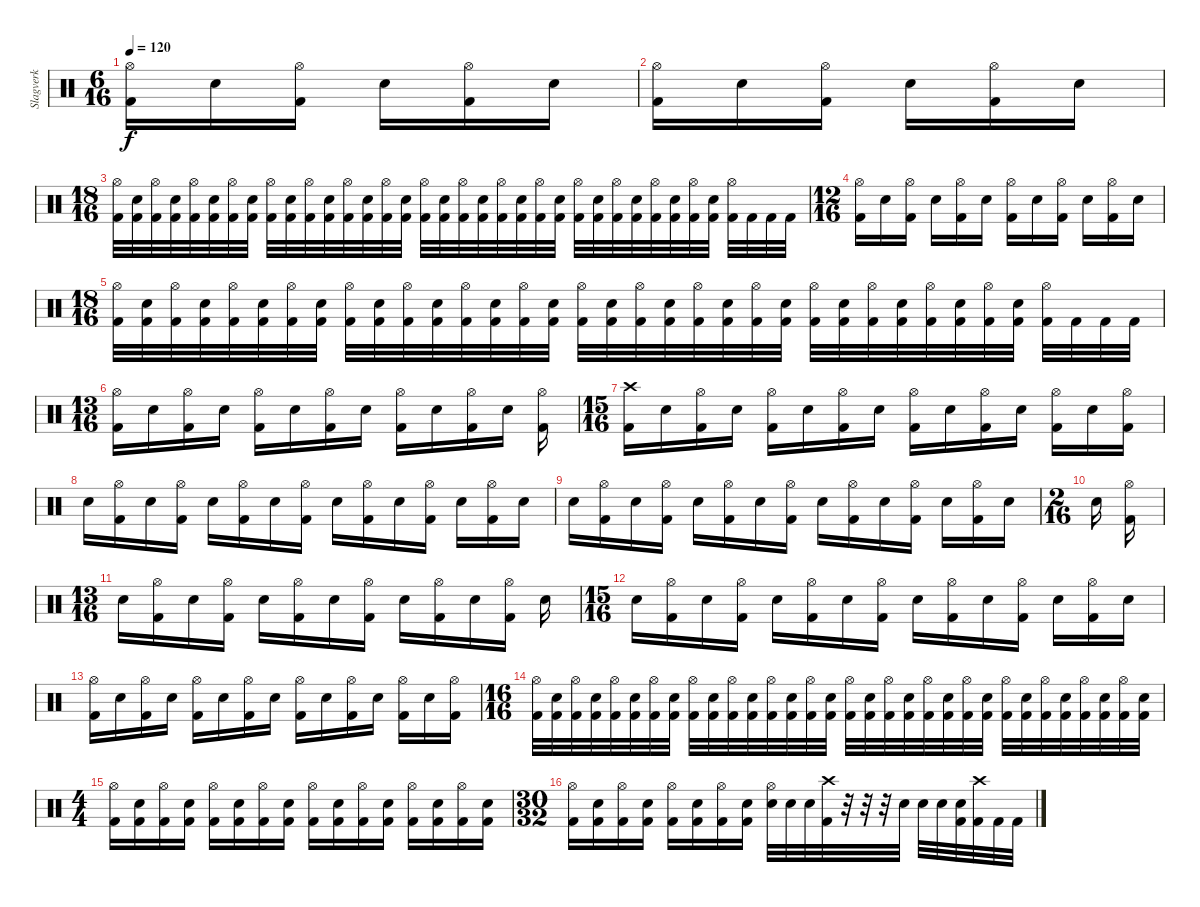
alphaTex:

\track ("Slagverk" "Slagverk") {instrument percussion}
\staff {score}
\articulation defaults
\ts (6 16)
\tempo 120
\clef neutral
\ks c
("Hi-Hat (open)" "Kick (hit) 2").16{dy f} "Electric Snare (hit)".16 ("Hi-Hat (open)" "Kick (hit) 2").16 "Electric Snare (hit)".16 ("Hi-Hat (open)" "Kick (hit) 2").16 "Electric Snare (hit)".16 |
("Hi-Hat (open)" "Kick (hit) 2").16 "Electric Snare (hit)".16 ("Hi-Hat (open)" "Kick (hit) 2").16 "Electric Snare (hit)".16 ("Hi-Hat (open)" "Kick (hit) 2").16 "Electric Snare (hit)".16 |
\ts (18 16)
("Hi-Hat (open)" "Kick (hit) 2").32 ("Electric Snare (hit)" "Kick (hit) 2").32 ("Hi-Hat (open)" "Kick (hit) 2").32 ("Electric Snare (hit)" "Kick (hit) 2").32 ("Hi-Hat (open)" "Kick (hit) 2").32 ("Electric Snare (hit)" "Kick (hit) 2").32 ("Hi-Hat (open)" "Kick (hit) 2").32 ("Electric Snare (hit)" "Kick (hit) 2").32 ("Hi-Hat (open)" "Kick (hit) 2").32 ("Electric Snare (hit)" "Kick (hit) 2").32 ("Hi-Hat (open)" "Kick (hit) 2").32 ("Electric Snare (hit)" "Kick (hit) 2").32 ("Hi-Hat (open)" "Kick (hit) 2").32 ("Electric Snare (hit)" "Kick (hit) 2").32 ("Hi-Hat (open)" "Kick (hit) 2").32 ("Electric Snare (hit)" "Kick (hit) 2").32 ("Hi-Hat (open)" "Kick (hit) 2").32 ("Electric Snare (hit)" "Kick (hit) 2").32 ("Hi-Hat (open)" "Kick (hit) 2").32 ("Electric Snare (hit)" "Kick (hit) 2").32 ("Hi-Hat (open)" "Kick (hit) 2").32 ("Electric Snare (hit)" "Kick (hit) 2").32 ("Hi-Hat (open)" "Kick (hit) 2").32 ("Electric Snare (hit)" "Kick (hit) 2").32 ("Hi-Hat (open)" "Kick (hit) 2").32 ("Electric Snare (hit)" "Kick (hit) 2").32 ("Hi-Hat (open)" "Kick (hit) 2").32 ("Electric Snare (hit)" "Kick (hit) 2").32 ("Hi-Hat (open)" "Kick (hit) 2").32 ("Electric Snare (hit)" "Kick (hit) 2").32 ("Hi-Hat (open)" "Kick (hit) 2").32 ("Electric Snare (hit)" "Kick (hit) 2").32 ("Hi-Hat (open)" "Kick (hit) 2").32 "Kick (hit) 2".32 "Kick (hit) 2".32 "Kick (hit) 2".32 |
\ts (12 16)
("Hi-Hat (open)" "Kick (hit) 2").16 "Electric Snare (hit)".16 ("Hi-Hat (open)" "Kick (hit) 2").16 "Electric Snare (hit)".16 ("Hi-Hat (open)" "Kick (hit) 2").16 "Electric Snare (hit)".16 ("Hi-Hat (open)" "Kick (hit) 2").16 "Electric Snare (hit)".16 ("Hi-Hat (open)" "Kick (hit) 2").16 "Electric Snare (hit)".16 ("Hi-Hat (open)" "Kick (hit) 2").16 "Electric Snare (hit)".16 |
\ts (18 16)
("Hi-Hat (open)" "Kick (hit) 2").32 ("Electric Snare (hit)" "Kick (hit) 2").32 ("Hi-Hat (open)" "Kick (hit) 2").32 ("Electric Snare (hit)" "Kick (hit) 2").32 ("Hi-Hat (open)" "Kick (hit) 2").32 ("Electric Snare (hit)" "Kick (hit) 2").32 ("Hi-Hat (open)" "Kick (hit) 2").32 ("Electric Snare (hit)" "Kick (hit) 2").32 ("Hi-Hat (open)" "Kick (hit) 2").32 ("Electric Snare (hit)" "Kick (hit) 2").32 ("Hi-Hat (open)" "Kick (hit) 2").32 ("Electric Snare (hit)" "Kick (hit) 2").32 ("Hi-Hat (open)" "Kick (hit) 2").32 ("Electric Snare (hit)" "Kick (hit) 2").32 ("Hi-Hat (open)" "Kick (hit) 2").32 ("Electric Snare (hit)" "Kick (hit) 2").32 ("Hi-Hat (open)" "Kick (hit) 2").32 ("Electric Snare (hit)" "Kick (hit) 2").32 ("Hi-Hat (open)" "Kick (hit) 2").32 ("Electric Snare (hit)" "Kick (hit) 2").32 ("Hi-Hat (open)" "Kick (hit) 2").32 ("Electric Snare (hit)" "Kick (hit) 2").32 ("Hi-Hat (open)" "Kick (hit) 2").32 ("Electric Snare (hit)" "Kick (hit) 2").32 ("Hi-Hat (open)" "Kick (hit) 2").32 ("Electric Snare (hit)" "Kick (hit) 2").32 ("Hi-Hat (open)" "Kick (hit) 2").32 ("Electric Snare (hit)" "Kick (hit) 2").32 ("Hi-Hat (open)" "Kick (hit) 2").32 ("Electric Snare (hit)" "Kick (hit) 2").32 ("Hi-Hat (open)" "Kick (hit) 2").32 ("Electric Snare (hit)" "Kick (hit) 2").32 ("Hi-Hat (open)" "Kick (hit) 2").32 "Kick (hit) 2".32 "Kick (hit) 2".32 "Kick (hit) 2".32 |
\ts (13 16)
("Hi-Hat (open)" "Kick (hit) 2").16 "Electric Snare (hit)".16 ("Hi-Hat (open)" "Kick (hit) 2").16 "Electric Snare (hit)".16 ("Hi-Hat (open)" "Kick (hit) 2").16 "Electric Snare (hit)".16 ("Hi-Hat (open)" "Kick (hit) 2").16 "Electric Snare (hit)".16 ("Hi-Hat (open)" "Kick (hit) 2").16 "Electric Snare (hit)".16 ("Hi-Hat (open)" "Kick (hit) 2").16 "Electric Snare (hit)".16 ("Hi-Hat (open)" "Kick (hit) 2").16 |
\ts (15 16)
("Crash high (hit)" "Kick (hit) 2").16 "Electric Snare (hit)".16 ("Hi-Hat (open)" "Kick (hit) 2").16 "Electric Snare (hit)".16 ("Hi-Hat (open)" "Kick (hit) 2").16 "Electric Snare (hit)".16 ("Hi-Hat (open)" "Kick (hit) 2").16 "Electric Snare (hit)".16 ("Hi-Hat (open)" "Kick (hit) 2").16 "Electric Snare (hit)".16 ("Hi-Hat (open)" "Kick (hit) 2").16 "Electric Snare (hit)".16 ("Hi-Hat (open)" "Kick (hit) 2").16 "Electric Snare (hit)".16 ("Hi-Hat (open)" "Kick (hit) 2").16 |
"Electric Snare (hit)".16 ("Hi-Hat (open)" "Kick (hit) 2").16 "Electric Snare (hit)".16 ("Hi-Hat (open)" "Kick (hit) 2").16 "Electric Snare (hit)".16 ("Hi-Hat (open)" "Kick (hit) 2").16 "Electric Snare (hit)".16 ("Hi-Hat (open)" "Kick (hit) 2").16 "Electric Snare (hit)".16 ("Hi-Hat (open)" "Kick (hit) 2").16 "Electric Snare (hit)".16 ("Hi-Hat (open)" "Kick (hit) 2").16 "Electric Snare (hit)".16 ("Hi-Hat (open)" "Kick (hit) 2").16 "Electric Snare (hit)".16 |
"Electric Snare (hit)".16 ("Hi-Hat (open)" "Kick (hit) 2").16 "Electric Snare (hit)".16 ("Hi-Hat (open)" "Kick (hit) 2").16 "Electric Snare (hit)".16 ("Hi-Hat (open)" "Kick (hit) 2").16 "Electric Snare (hit)".16 ("Hi-Hat (open)" "Kick (hit) 2").16 "Electric Snare (hit)".16 ("Hi-Hat (open)" "Kick (hit) 2").16 "Electric Snare (hit)".16 ("Hi-Hat (open)" "Kick (hit) 2").16 "Electric Snare (hit)".16 ("Hi-Hat (open)" "Kick (hit) 2").16 "Electric Snare (hit)".16 |
\ts (2 16)
"Electric Snare (hit)".16 ("Hi-Hat (open)" "Kick (hit) 2").16 |
\ts (13 16)
"Electric Snare (hit)".16 ("Hi-Hat (open)" "Kick (hit) 2").16 "Electric Snare (hit)".16 ("Hi-Hat (open)" "Kick (hit) 2").16 "Electric Snare (hit)".16 ("Hi-Hat (open)" "Kick (hit) 2").16 "Electric Snare (hit)".16 ("Hi-Hat (open)" "Kick (hit) 2").16 "Electric Snare (hit)".16 ("Hi-Hat (open)" "Kick (hit) 2").16 "Electric Snare (hit)".16 ("Hi-Hat (open)" "Kick (hit) 2").16 "Electric Snare (hit)".16 |
\ts (15 16)
"Electric Snare (hit)".16 ("Hi-Hat (open)" "Kick (hit) 2").16 "Electric Snare (hit)".16 ("Hi-Hat (open)" "Kick (hit) 2").16 "Electric Snare (hit)".16 ("Hi-Hat (open)" "Kick (hit) 2").16 "Electric Snare (hit)".16 ("Hi-Hat (open)" "Kick (hit) 2").16 "Electric Snare (hit)".16 ("Hi-Hat (open)" "Kick (hit) 2").16 "Electric Snare (hit)".16 ("Hi-Hat (open)" "Kick (hit) 2").16 "Electric Snare (hit)".16 ("Hi-Hat (open)" "Kick (hit) 2").16 "Electric Snare (hit)".16 |
("Hi-Hat (open)" "Kick (hit) 2").16 "Electric Snare (hit)".16 ("Hi-Hat (open)" "Kick (hit) 2").16 "Electric Snare (hit)".16 ("Hi-Hat (open)" "Kick (hit) 2").16 "Electric Snare (hit)".16 ("Hi-Hat (open)" "Kick (hit) 2").16 "Electric Snare (hit)".16 ("Hi-Hat (open)" "Kick (hit) 2").16 "Electric Snare (hit)".16 ("Hi-Hat (open)" "Kick (hit) 2").16 "Electric Snare (hit)".16 ("Hi-Hat (open)" "Kick (hit) 2").16 "Electric Snare (hit)".16 ("Hi-Hat (open)" "Kick (hit) 2").16 |
\ts (16 16)
("Hi-Hat (open)" "Kick (hit) 2").32 ("Electric Snare (hit)" "Kick (hit) 2").32 ("Hi-Hat (open)" "Kick (hit) 2").32 ("Electric Snare (hit)" "Kick (hit) 2").32 ("Hi-Hat (open)" "Kick (hit) 2").32 ("Electric Snare (hit)" "Kick (hit) 2").32 ("Hi-Hat (open)" "Kick (hit) 2").32 ("Electric Snare (hit)" "Kick (hit) 2").32 ("Hi-Hat (open)" "Kick (hit) 2").32 ("Electric Snare (hit)" "Kick (hit) 2").32 ("Hi-Hat (open)" "Kick (hit) 2").32 ("Electric Snare (hit)" "Kick (hit) 2").32 ("Hi-Hat (open)" "Kick (hit) 2").32 ("Electric Snare (hit)" "Kick (hit) 2").32 ("Hi-Hat (open)" "Kick (hit) 2").32 ("Electric Snare (hit)" "Kick (hit) 2").32 ("Hi-Hat (open)" "Kick (hit) 2").32 ("Electric Snare (hit)" "Kick (hit) 2").32 ("Hi-Hat (open)" "Kick (hit) 2").32 ("Electric Snare (hit)" "Kick (hit) 2").32 ("Hi-Hat (open)" "Kick (hit) 2").32 ("Electric Snare (hit)" "Kick (hit) 2").32 ("Hi-Hat (open)" "Kick (hit) 2").32 ("Electric Snare (hit)" "Kick (hit) 2").32 ("Hi-Hat (open)" "Kick (hit) 2").32 ("Electric Snare (hit)" "Kick (hit) 2").32 ("Hi-Hat (open)" "Kick (hit) 2").32 ("Electric Snare (hit)" "Kick (hit) 2").32 ("Hi-Hat (open)" "Kick (hit) 2").32 ("Electric Snare (hit)" "Kick (hit) 2").32 ("Hi-Hat (open)" "Kick (hit) 2").32 ("Electric Snare (hit)" "Kick (hit) 2").32 |
\ts (4 4)
("Hi-Hat (open)" "Kick (hit) 2").16 ("Electric Snare (hit)" "Kick (hit) 2").16 ("Hi-Hat (open)" "Kick (hit) 2").16 ("Electric Snare (hit)" "Kick (hit) 2").16 ("Hi-Hat (open)" "Kick (hit) 2").16 ("Electric Snare (hit)" "Kick (hit) 2").16 ("Hi-Hat (open)" "Kick (hit) 2").16 ("Electric Snare (hit)" "Kick (hit) 2").16 ("Hi-Hat (open)" "Kick (hit) 2").16 ("Electric Snare (hit)" "Kick (hit) 2").16 ("Hi-Hat (open)" "Kick (hit) 2").16 ("Electric Snare (hit)" "Kick (hit) 2").16 ("Hi-Hat (open)" "Kick (hit) 2").16 ("Electric Snare (hit)" "Kick (hit) 2").16 ("Hi-Hat (open)" "Kick (hit) 2").16 ("Electric Snare (hit)" "Kick (hit) 2").16 |
\ts (30 32)
("Hi-Hat (open)" "Kick (hit) 2").16 ("Electric Snare (hit)" "Kick (hit) 2").16 ("Hi-Hat (open)" "Kick (hit) 2").16 ("Electric Snare (hit)" "Kick (hit) 2").16 ("Hi-Hat (open)" "Kick (hit) 2").16 ("Electric Snare (hit)" "Kick (hit) 2").16 ("Hi-Hat (open)" "Kick (hit) 2").16 ("Electric Snare (hit)" "Kick (hit) 2").16 ("Hi-Hat (open)" "Electric Snare (hit)").32 "Electric Snare (hit)".32 "Electric Snare (hit)".32 ("Crash high (hit)" "Kick (hit) 2").32 r.32 r.32 r.32 "Electric Snare (hit)".32 "Electric Snare (hit)".32 "Electric Snare (hit)".32 ("Electric Snare (hit)" "Kick (hit) 2").32 ("Crash high (hit)" "Kick (hit) 2").32 "Kick (hit) 2".32 "Kick (hit) 2".32
